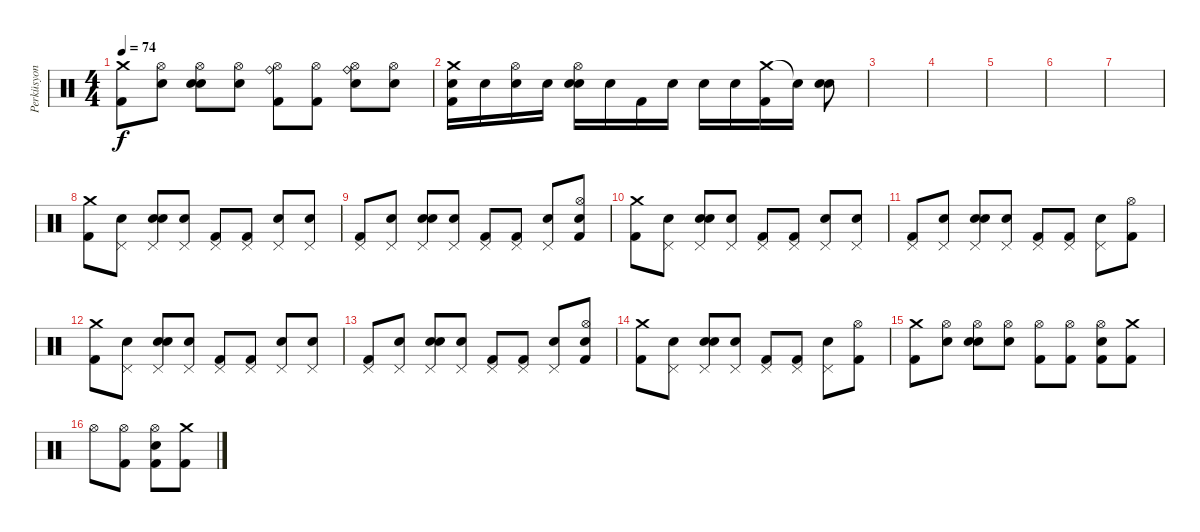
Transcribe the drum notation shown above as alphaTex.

\track ("Perküsyon" "Perküsyon") {instrument percussion}
\staff {score}
\articulation defaults
\ts (4 4)
\tempo 74
\clef neutral
\ks c
("Crash medium (hit)" "Kick (hit) 2").8{dy f} ("Hi-Hat (open)" "Snare (hit)").8 ("Hi-Hat (open)" "Electric Snare (hit)" "Snare (hit)").8 ("Hi-Hat (open)" "Snare (hit)").8 ("Hi-Hat (open)" "Ride (bell)" "Kick (hit) 2").8 ("Hi-Hat (open)" "Kick (hit) 2").8 ("Hi-Hat (open)" "Ride (bell)" "Electric Snare (hit)").8 ("Hi-Hat (open)" "Snare (hit)").8 |
("Crash medium (hit)" "Snare (hit)" "Kick (hit) 2").16 "Snare (hit)".16 ("Hi-Hat (open)" "Snare (hit)").16 "Snare (hit)".16 ("Hi-Hat (open)" "Electric Snare (hit)" "Snare (hit)").16 "Snare (hit)".16 "Kick (hit) 2".16 "Snare (hit)".16 "Electric Snare (hit)".16 "Electric Snare (hit)".16 ("Crash medium (hit)" "Kick (hit) 2").16 "Snare (hit)"{t}.16 ("Electric Snare (hit)" "Electric Snare (hit)").8{bd 480} |
|
|
|
|
|
("Crash medium (hit)" "Kick (hit) 2").8 ("Pedal Hi-Hat (hit)" "Snare (hit)").8 ("Pedal Hi-Hat (hit)" "Electric Snare (hit)" "Snare (hit)").8 ("Pedal Hi-Hat (hit)" "Snare (hit)").8 ("Pedal Hi-Hat (hit)" "Kick (hit) 2").8 ("Pedal Hi-Hat (hit)" "Kick (hit) 2").8 ("Pedal Hi-Hat (hit)" "Electric Snare (hit)").8 ("Pedal Hi-Hat (hit)" "Snare (hit)").8 |
("Pedal Hi-Hat (hit)" "Kick (hit) 2").8 ("Pedal Hi-Hat (hit)" "Snare (hit)").8 ("Pedal Hi-Hat (hit)" "Electric Snare (hit)" "Snare (hit)").8 ("Pedal Hi-Hat (hit)" "Snare (hit)").8 ("Pedal Hi-Hat (hit)" "Kick (hit) 2").8 ("Pedal Hi-Hat (hit)" "Kick (hit) 2").8 ("Pedal Hi-Hat (hit)" "Electric Snare (hit)").8 ("Hi-Hat (open)" "Snare (hit)" "Kick (hit) 2").8 |
("Crash medium (hit)" "Kick (hit) 2").8 ("Pedal Hi-Hat (hit)" "Snare (hit)").8 ("Pedal Hi-Hat (hit)" "Electric Snare (hit)" "Snare (hit)").8 ("Pedal Hi-Hat (hit)" "Snare (hit)").8 ("Pedal Hi-Hat (hit)" "Kick (hit) 2").8 ("Pedal Hi-Hat (hit)" "Kick (hit) 2").8 ("Pedal Hi-Hat (hit)" "Electric Snare (hit)").8 ("Pedal Hi-Hat (hit)" "Snare (hit)").8 |
("Pedal Hi-Hat (hit)" "Kick (hit) 2").8 ("Pedal Hi-Hat (hit)" "Snare (hit)").8 ("Pedal Hi-Hat (hit)" "Electric Snare (hit)" "Snare (hit)").8 ("Pedal Hi-Hat (hit)" "Snare (hit)").8 ("Pedal Hi-Hat (hit)" "Kick (hit) 2").8 ("Pedal Hi-Hat (hit)" "Kick (hit) 2").8 ("Pedal Hi-Hat (hit)" "Electric Snare (hit)").8 ("Hi-Hat (open)" "Kick (hit) 2").8 |
("Crash medium (hit)" "Kick (hit) 2").8 ("Pedal Hi-Hat (hit)" "Snare (hit)").8 ("Pedal Hi-Hat (hit)" "Electric Snare (hit)" "Snare (hit)").8 ("Pedal Hi-Hat (hit)" "Snare (hit)").8 ("Pedal Hi-Hat (hit)" "Kick (hit) 2").8 ("Pedal Hi-Hat (hit)" "Kick (hit) 2").8 ("Pedal Hi-Hat (hit)" "Electric Snare (hit)").8 ("Pedal Hi-Hat (hit)" "Snare (hit)").8 |
("Pedal Hi-Hat (hit)" "Kick (hit) 2").8 ("Pedal Hi-Hat (hit)" "Snare (hit)").8 ("Pedal Hi-Hat (hit)" "Electric Snare (hit)" "Snare (hit)").8 ("Pedal Hi-Hat (hit)" "Snare (hit)").8 ("Pedal Hi-Hat (hit)" "Kick (hit) 2").8 ("Pedal Hi-Hat (hit)" "Kick (hit) 2").8 ("Pedal Hi-Hat (hit)" "Electric Snare (hit)").8 ("Hi-Hat (open)" "Snare (hit)" "Kick (hit) 2").8 |
("Crash medium (hit)" "Kick (hit) 2").8 ("Pedal Hi-Hat (hit)" "Snare (hit)").8 ("Pedal Hi-Hat (hit)" "Electric Snare (hit)" "Snare (hit)").8 ("Pedal Hi-Hat (hit)" "Snare (hit)").8 ("Pedal Hi-Hat (hit)" "Kick (hit) 2").8 ("Pedal Hi-Hat (hit)" "Kick (hit) 2").8 ("Pedal Hi-Hat (hit)" "Electric Snare (hit)").8 ("Hi-Hat (open)" "Kick (hit) 2").8 |
("Crash medium (hit)" "Kick (hit) 2").8 ("Hi-Hat (open)" "Snare (hit)").8 ("Hi-Hat (open)" "Electric Snare (hit)" "Snare (hit)").8 ("Hi-Hat (open)" "Snare (hit)").8 ("Hi-Hat (open)" "Kick (hit) 2").8 ("Hi-Hat (open)" "Kick (hit) 2").8 ("Hi-Hat (open)" "Electric Snare (hit)" "Kick (hit) 2").8 ("Crash medium (hit)" "Kick (hit) 2").8 |
"Hi-Hat (open)".8 ("Hi-Hat (open)" "Kick (hit) 2").8 ("Hi-Hat (open)" "Electric Snare (hit)" "Kick (hit) 2").8 ("Crash medium (hit)" "Kick (hit) 2").8
